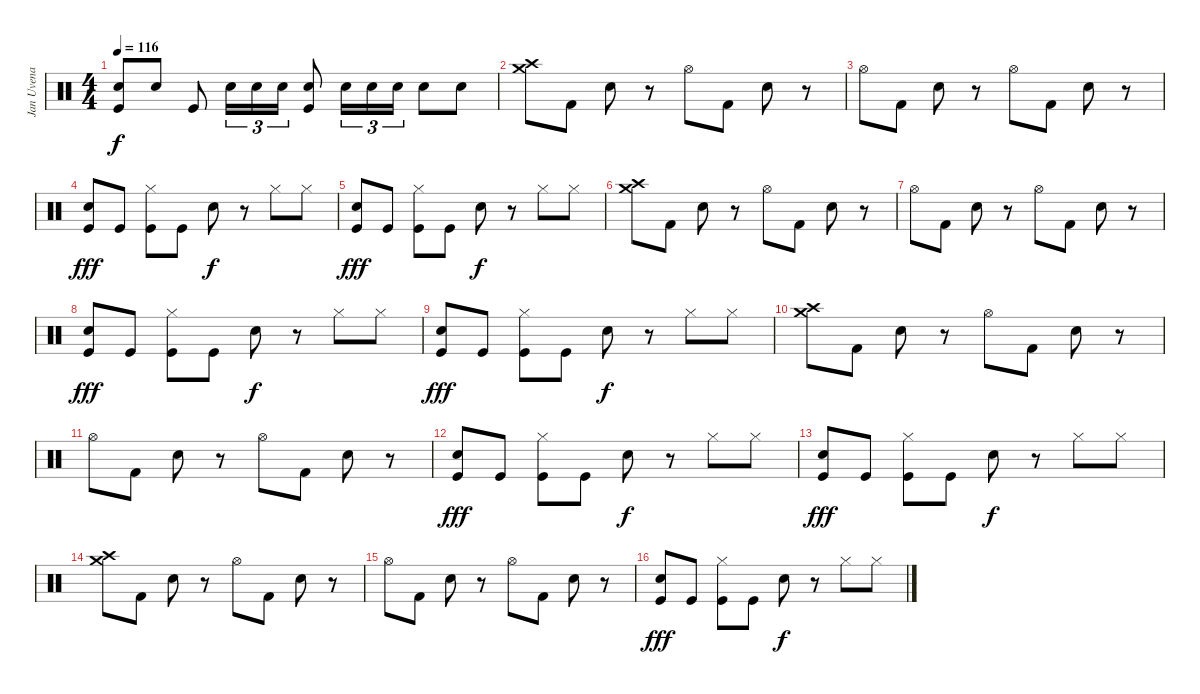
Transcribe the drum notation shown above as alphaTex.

\track ("Jan Uvena" "Jan Uvena") {instrument percussion}
\staff {score}
\articulation defaults
\ts (4 4)
\tempo 116
\clef neutral
\ks c
("Snare (hit) 2" "Kick (hit)").8{dy f} "Snare (hit) 2".8 "Kick (hit)".8 "Snare (hit) 2".16{tu (3 2)} "Snare (hit) 2".16{tu (3 2)} "Snare (hit) 2".16{tu (3 2)} ("Snare (hit) 2" "Kick (hit)").8 "Snare (hit) 2".16{tu (3 2)} "Snare (hit) 2".16{tu (3 2)} "Snare (hit) 2".16{tu (3 2)} "Snare (hit) 2".8 "Snare (hit) 2".8 |
("Crash medium (hit)" "Crash high (hit)").8 "Kick (hit) 2".8 "Snare (hit) 2".8 r.8 "Hi-Hat (open)".8 "Kick (hit) 2".8 "Snare (hit) 2".8 r.8 |
"Hi-Hat (open)".8 "Kick (hit) 2".8 "Snare (hit) 2".8 r.8 "Hi-Hat (open)".8 "Kick (hit) 2".8 "Snare (hit) 2".8 r.8 |
("Snare (hit) 2" "Kick (hit)").8{dy fff} "Kick (hit)".8 ("Hi-Hat (closed)" "Kick (hit)").8 "Kick (hit)".8 "Snare (hit) 2".8{dy f} r.8 "Hi-Hat (closed)".8 "Hi-Hat (closed)".8 |
("Snare (hit) 2" "Kick (hit)").8{dy fff} "Kick (hit)".8 ("Hi-Hat (closed)" "Kick (hit)").8 "Kick (hit)".8 "Snare (hit) 2".8{dy f} r.8 "Hi-Hat (closed)".8 "Hi-Hat (closed)".8 |
("Crash medium (hit)" "Crash high (hit)").8 "Kick (hit) 2".8 "Snare (hit) 2".8 r.8 "Hi-Hat (open)".8 "Kick (hit) 2".8 "Snare (hit) 2".8 r.8 |
"Hi-Hat (open)".8 "Kick (hit) 2".8 "Snare (hit) 2".8 r.8 "Hi-Hat (open)".8 "Kick (hit) 2".8 "Snare (hit) 2".8 r.8 |
("Snare (hit) 2" "Kick (hit)").8{dy fff} "Kick (hit)".8 ("Hi-Hat (closed)" "Kick (hit)").8 "Kick (hit)".8 "Snare (hit) 2".8{dy f} r.8 "Hi-Hat (closed)".8 "Hi-Hat (closed)".8 |
("Snare (hit) 2" "Kick (hit)").8{dy fff} "Kick (hit)".8 ("Hi-Hat (closed)" "Kick (hit)").8 "Kick (hit)".8 "Snare (hit) 2".8{dy f} r.8 "Hi-Hat (closed)".8 "Hi-Hat (closed)".8 |
("Crash medium (hit)" "Crash high (hit)").8 "Kick (hit) 2".8 "Snare (hit) 2".8 r.8 "Hi-Hat (open)".8 "Kick (hit) 2".8 "Snare (hit) 2".8 r.8 |
"Hi-Hat (open)".8 "Kick (hit) 2".8 "Snare (hit) 2".8 r.8 "Hi-Hat (open)".8 "Kick (hit) 2".8 "Snare (hit) 2".8 r.8 |
("Snare (hit) 2" "Kick (hit)").8{dy fff} "Kick (hit)".8 ("Hi-Hat (closed)" "Kick (hit)").8 "Kick (hit)".8 "Snare (hit) 2".8{dy f} r.8 "Hi-Hat (closed)".8 "Hi-Hat (closed)".8 |
("Snare (hit) 2" "Kick (hit)").8{dy fff} "Kick (hit)".8 ("Hi-Hat (closed)" "Kick (hit)").8 "Kick (hit)".8 "Snare (hit) 2".8{dy f} r.8 "Hi-Hat (closed)".8 "Hi-Hat (closed)".8 |
("Crash medium (hit)" "Crash high (hit)").8 "Kick (hit) 2".8 "Snare (hit) 2".8 r.8 "Hi-Hat (open)".8 "Kick (hit) 2".8 "Snare (hit) 2".8 r.8 |
"Hi-Hat (open)".8 "Kick (hit) 2".8 "Snare (hit) 2".8 r.8 "Hi-Hat (open)".8 "Kick (hit) 2".8 "Snare (hit) 2".8 r.8 |
("Snare (hit) 2" "Kick (hit)").8{dy fff} "Kick (hit)".8 ("Hi-Hat (closed)" "Kick (hit)").8 "Kick (hit)".8 "Snare (hit) 2".8{dy f} r.8 "Hi-Hat (closed)".8 "Hi-Hat (closed)".8
